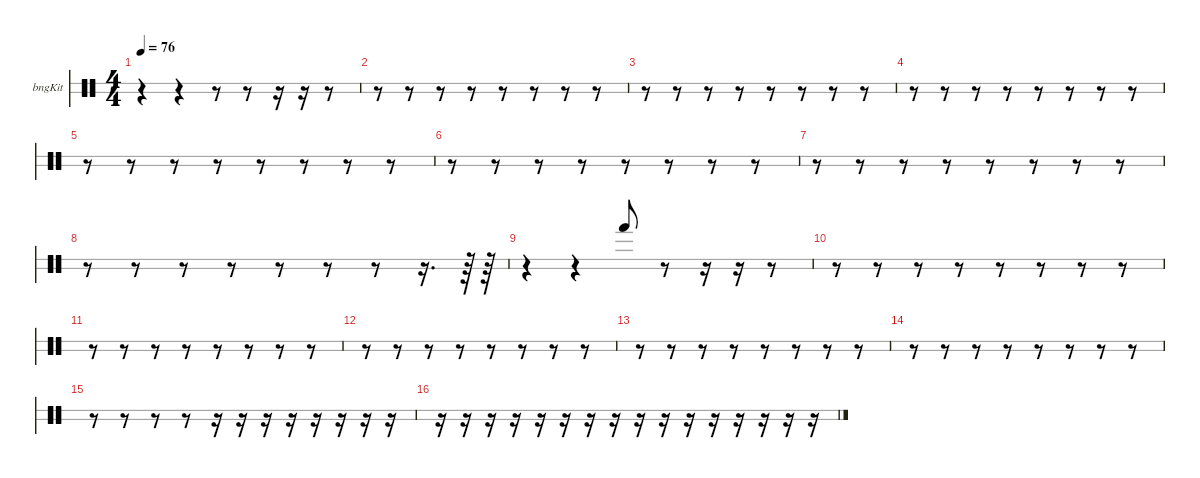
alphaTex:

\hideDynamics
\bracketExtendMode nobrackets
\firstSystemTrackNameOrientation horizontal
\otherSystemsTrackNameOrientation horizontal
\track ("Bongos" "bngKit") {instrument percussion}
\staff {score 2}
\articulation defaults
\ts (4 4)
\tempo 76
\clef neutral
\ks c
r.4{dy f beam Down} r.4{beam Down} r.8{beam Down} r.8{beam Down} r.16{beam Down} r.16{beam Down} r.8{beam Down} |
r.8{beam Down} r.8{beam Down} r.8{beam Down} r.8{beam Down} r.8{beam Down} r.8{beam Down} r.8{beam Down} r.8{beam Down} |
r.8{beam Down} r.8{beam Down} r.8{beam Down} r.8{beam Down} r.8{beam Down} r.8{beam Down} r.8{beam Down} r.8{beam Down} |
r.8{beam Down} r.8{beam Down} r.8{beam Down} r.8{beam Down} r.8{beam Down} r.8{beam Down} r.8{beam Down} r.8{beam Down} |
r.8{beam Down} r.8{beam Down} r.8{beam Down} r.8{beam Down} r.8{beam Down} r.8{beam Down} r.8{beam Down} r.8{beam Down} |
r.8{beam Down} r.8{beam Down} r.8{beam Down} r.8{beam Down} r.8{beam Down} r.8{beam Down} r.8{beam Down} r.8{beam Down} |
r.8{beam Down} r.8{beam Down} r.8{beam Down} r.8{beam Down} r.8{beam Down} r.8{beam Down} r.8{beam Down} r.8{beam Down} |
r.8{beam Down} r.8{beam Down} r.8{beam Down} r.8{beam Down} r.8{beam Down} r.8{beam Down} r.8{beam Down} r.16{d beam Down} r.64{beam Down} r.64{beam Down} |
r.4{beam Down} r.4{beam Down} "Hand (hit)".8{beam Up} r.8{beam Up} r.16{beam Up} r.16{beam Up} r.8{beam Up} |
r.8{beam Down} r.8{beam Down} r.8{beam Down} r.8{beam Down} r.8{beam Down} r.8{beam Down} r.8{beam Down} r.8{beam Down} |
r.8{beam Down} r.8{beam Down} r.8{beam Down} r.8{beam Down} r.8{beam Down} r.8{beam Down} r.8{beam Down} r.8{beam Down} |
r.8{beam Down} r.8{beam Down} r.8{beam Down} r.8{beam Down} r.8{beam Down} r.8{beam Down} r.8{beam Down} r.8{beam Down} |
r.8{beam Down} r.8{beam Down} r.8{beam Down} r.8{beam Down} r.8{beam Down} r.8{beam Down} r.8{beam Down} r.8{beam Down} |
r.8{beam Down} r.8{beam Down} r.8{beam Down} r.8{beam Down} r.8{beam Down} r.8{beam Down} r.8{beam Down} r.8{beam Down} |
r.8{beam Down} r.8{beam Down} r.8{beam Down} r.8{beam Down} r.16{beam Down} r.16{beam Down} r.16{beam Down} r.16{beam Down} r.16{beam Down} r.16{beam Down} r.16{beam Down} r.16{beam Down} |
r.16{beam Down} r.16{beam Down} r.16{beam Down} r.16{beam Down} r.16{beam Down} r.16{beam Down} r.16{beam Down} r.16{beam Down} r.16{beam Down} r.16{beam Down} r.16{beam Down} r.16{beam Down} r.16{beam Down} r.16{beam Down} r.16{beam Down} r.16{beam Down}
